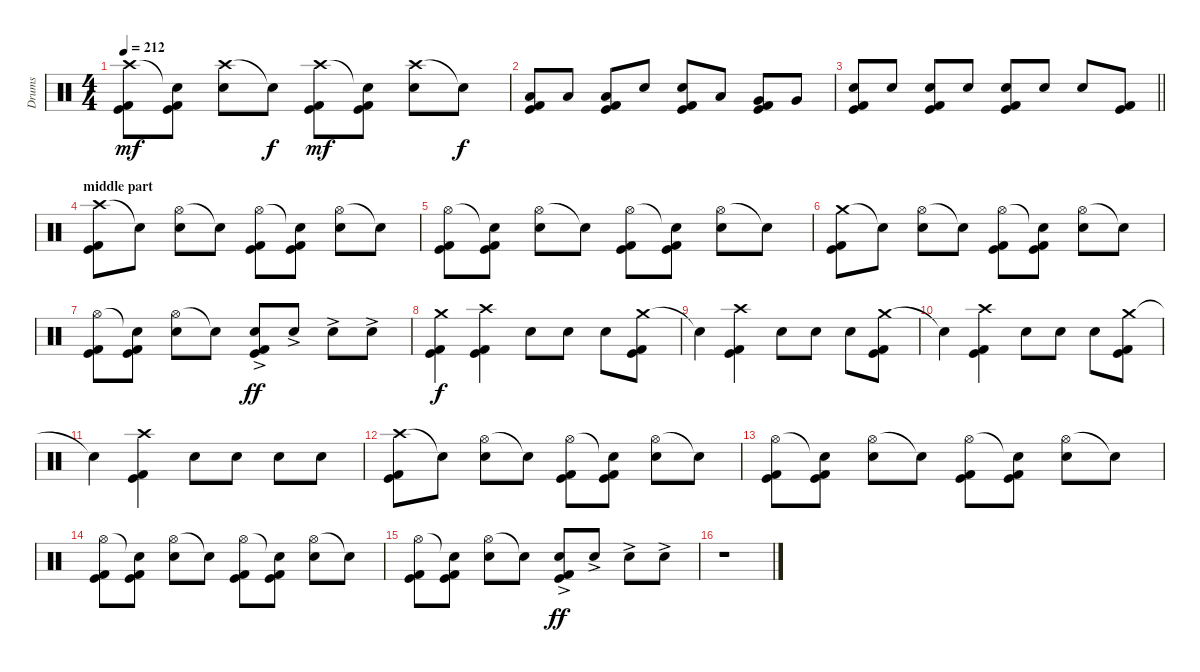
\track ("Drums" "Drums") {instrument percussion}
\staff {score}
\articulation defaults
\ts (4 4)
\tempo 212
\clef neutral
\ks c
("Crash high (hit)" "Kick (hit)" "Kick (hit) 2").8{dy mf} ("Snare (hit)"{t} "Kick (hit)" "Kick (hit) 2").8 ("Crash high (hit)" "Snare (hit) 2").8 "Snare (hit)"{t}.8{dy f} ("Crash high (hit)" "Kick (hit)" "Kick (hit) 2").8{dy mf} ("Snare (hit)"{t} "Kick (hit)" "Kick (hit) 2").8 ("Crash high (hit)" "Snare (hit) 2").8 "Snare (hit)"{t}.8{dy f} |
("Low Tom (hit)" "Kick (hit)" "Kick (hit) 2").8 "Low Tom (hit)".8 ("Low Tom (hit)" "Kick (hit)" "Kick (hit) 2").8 "Snare (hit) 2".8 ("Snare (hit) 2" "Kick (hit)" "Kick (hit) 2").8 "Low Tom (hit)".8 ("Very Low Tom (hit)" "Kick (hit)" "Kick (hit) 2").8 "Very Low Tom (hit)".8 |
\barLineRight lightlight
("Snare (hit) 2" "Kick (hit)" "Kick (hit) 2").8 "Snare (hit) 2".8 ("Snare (hit) 2" "Kick (hit)" "Kick (hit) 2").8 "Snare (hit) 2".8 ("Snare (hit) 2" "Kick (hit)" "Kick (hit) 2").8 "Snare (hit) 2".8 "Snare (hit) 2".8 ("Kick (hit)" "Kick (hit) 2").8 |
\section ("" "middle part")
("Crash high (hit)" "Kick (hit)" "Kick (hit) 2").8 "Snare (hit)"{t}.8 ("Hi-Hat (open)" "Snare (hit) 2").8 "Snare (hit)"{t}.8 ("Hi-Hat (open)" "Kick (hit)" "Kick (hit) 2").8 ("Snare (hit)"{t} "Kick (hit)" "Kick (hit) 2").8 ("Hi-Hat (open)" "Snare (hit) 2").8 "Snare (hit)"{t}.8 |
("Hi-Hat (open)" "Kick (hit)" "Kick (hit) 2").8 ("Snare (hit)"{t} "Kick (hit)" "Kick (hit) 2").8 ("Hi-Hat (open)" "Snare (hit) 2").8 "Snare (hit)"{t}.8 ("Hi-Hat (open)" "Kick (hit)" "Kick (hit) 2").8 ("Snare (hit)"{t} "Kick (hit)" "Kick (hit) 2").8 ("Hi-Hat (open)" "Snare (hit) 2").8 "Snare (hit)"{t}.8 |
("Crash medium (hit)" "Kick (hit)" "Kick (hit) 2").8 "Snare (hit)"{t}.8 ("Hi-Hat (open)" "Snare (hit) 2").8 "Snare (hit)"{t}.8 ("Hi-Hat (open)" "Kick (hit)" "Kick (hit) 2").8 ("Snare (hit)"{t} "Kick (hit)" "Kick (hit) 2").8 ("Hi-Hat (open)" "Snare (hit) 2").8 "Snare (hit)"{t}.8 |
("Hi-Hat (open)" "Kick (hit)" "Kick (hit) 2").8 ("Snare (hit)"{t} "Kick (hit)" "Kick (hit) 2").8 ("Hi-Hat (open)" "Snare (hit) 2").8 "Snare (hit)"{t}.8 ("Snare (hit) 2"{ac} "Kick (hit)" "Kick (hit) 2").8{dy ff} "Snare (hit) 2"{ac}.8 "Snare (hit) 2"{ac}.8 "Snare (hit) 2"{ac}.8 |
("Crash medium (hit)" "Kick (hit)" "Kick (hit) 2").4{dy f} ("Crash high (hit)" "Kick (hit)" "Kick (hit) 2").4 "Snare (hit) 2".8 "Snare (hit) 2".8 "Snare (hit) 2".8 ("Crash medium (hit)" "Kick (hit)" "Kick (hit) 2").8 |
"Snare (hit)"{t}.4 ("Crash high (hit)" "Kick (hit)" "Kick (hit) 2").4 "Snare (hit) 2".8 "Snare (hit) 2".8 "Snare (hit) 2".8 ("Crash medium (hit)" "Kick (hit)" "Kick (hit) 2").8 |
"Snare (hit)"{t}.4 ("Crash high (hit)" "Kick (hit)" "Kick (hit) 2").4 "Snare (hit) 2".8 "Snare (hit) 2".8 "Snare (hit) 2".8 ("Crash medium (hit)" "Kick (hit)" "Kick (hit) 2").8 |
"Snare (hit)"{t}.4 ("Crash high (hit)" "Kick (hit)" "Kick (hit) 2").4 "Snare (hit) 2".8 "Snare (hit) 2".8 "Snare (hit) 2".8 "Snare (hit) 2".8 |
("Crash high (hit)" "Kick (hit)" "Kick (hit) 2").8 "Snare (hit)"{t}.8 ("Hi-Hat (open)" "Snare (hit) 2").8 "Snare (hit)"{t}.8 ("Hi-Hat (open)" "Kick (hit)" "Kick (hit) 2").8 ("Snare (hit)"{t} "Kick (hit)" "Kick (hit) 2").8 ("Hi-Hat (open)" "Snare (hit) 2").8 "Snare (hit)"{t}.8 |
("Hi-Hat (open)" "Kick (hit)" "Kick (hit) 2").8 ("Snare (hit)"{t} "Kick (hit)" "Kick (hit) 2").8 ("Hi-Hat (open)" "Snare (hit) 2").8 "Snare (hit)"{t}.8 ("Hi-Hat (open)" "Kick (hit)" "Kick (hit) 2").8 ("Snare (hit)"{t} "Kick (hit)" "Kick (hit) 2").8 ("Hi-Hat (open)" "Snare (hit) 2").8 "Snare (hit)"{t}.8 |
("Hi-Hat (open)" "Kick (hit)" "Kick (hit) 2").8 ("Snare (hit)"{t} "Kick (hit)" "Kick (hit) 2").8 ("Hi-Hat (open)" "Snare (hit) 2").8 "Snare (hit)"{t}.8 ("Hi-Hat (open)" "Kick (hit)" "Kick (hit) 2").8 ("Snare (hit)"{t} "Kick (hit)" "Kick (hit) 2").8 ("Hi-Hat (open)" "Snare (hit) 2").8 "Snare (hit)"{t}.8 |
("Hi-Hat (open)" "Kick (hit)" "Kick (hit) 2").8 ("Snare (hit)"{t} "Kick (hit)" "Kick (hit) 2").8 ("Hi-Hat (open)" "Snare (hit) 2").8 "Snare (hit)"{t}.8 ("Snare (hit) 2"{ac} "Kick (hit)" "Kick (hit) 2").8{dy ff} "Snare (hit) 2"{ac}.8 "Snare (hit) 2"{ac}.8 "Snare (hit) 2"{ac}.8 |
r.1
